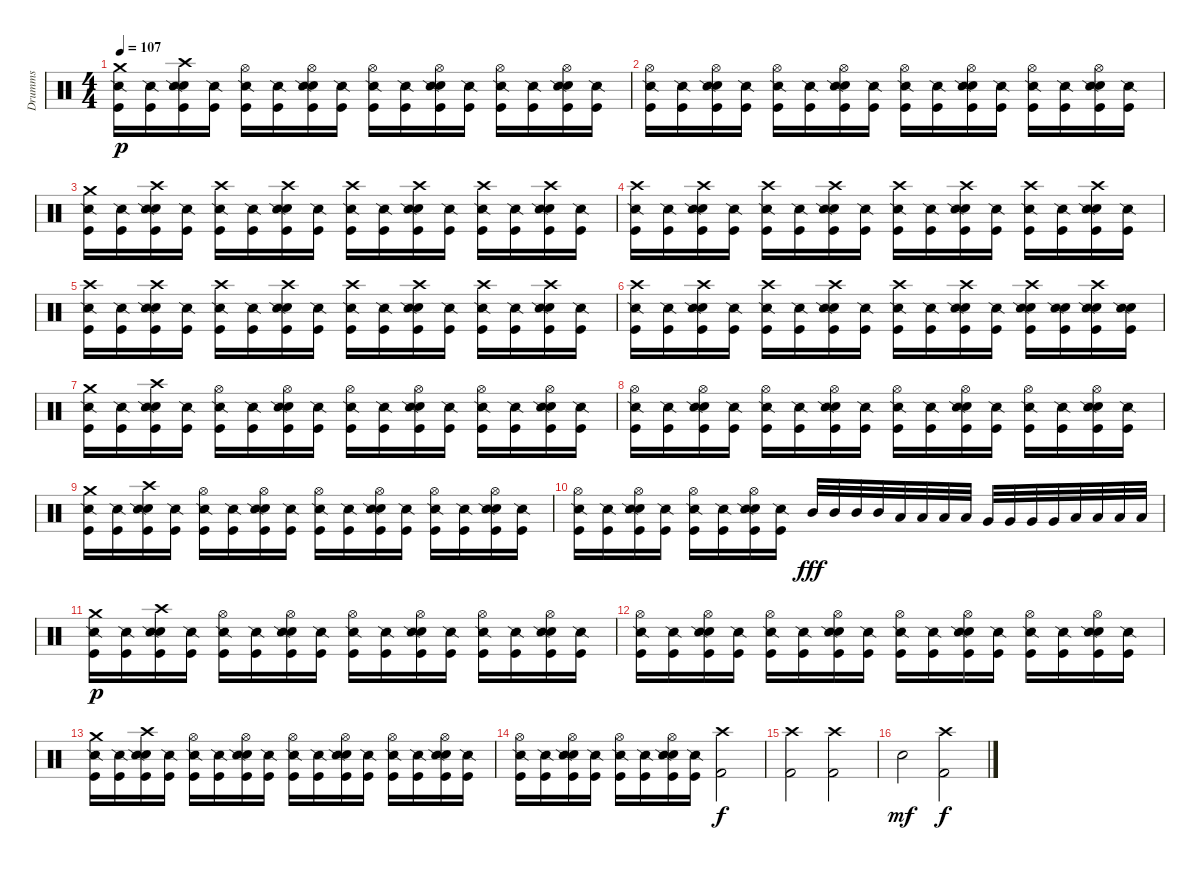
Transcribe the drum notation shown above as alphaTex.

\track ("Drumms" "Drumms") {instrument percussion}
\staff {score}
\articulation defaults
\ts (4 4)
\tempo 107
\clef neutral
\ks c
("Crash medium (hit)" "Snare (side stick) 2" "Kick (hit)").16{dy p} ("Snare (side stick) 2" "Kick (hit)").16 ("Crash high (hit)" "Electric Snare (hit)" "Snare (side stick) 2" "Kick (hit)").16 ("Snare (side stick) 2" "Kick (hit)").16 ("Hi-Hat (open)" "Snare (side stick) 2" "Kick (hit)").16 ("Snare (side stick) 2" "Kick (hit)").16 ("Hi-Hat (open)" "Electric Snare (hit)" "Snare (side stick) 2" "Kick (hit)").16 ("Snare (side stick) 2" "Kick (hit)").16 ("Hi-Hat (open)" "Snare (side stick) 2" "Kick (hit)").16 ("Snare (side stick) 2" "Kick (hit)").16 ("Hi-Hat (open)" "Electric Snare (hit)" "Snare (side stick) 2" "Kick (hit)").16 ("Snare (side stick) 2" "Kick (hit)").16 ("Hi-Hat (open)" "Snare (side stick) 2" "Kick (hit)").16 ("Snare (side stick) 2" "Kick (hit)").16 ("Hi-Hat (open)" "Electric Snare (hit)" "Snare (side stick) 2" "Kick (hit)").16 ("Snare (side stick) 2" "Kick (hit)").16 |
("Hi-Hat (open)" "Snare (side stick) 2" "Kick (hit)").16 ("Snare (side stick) 2" "Kick (hit)").16 ("Hi-Hat (open)" "Electric Snare (hit)" "Snare (side stick) 2" "Kick (hit)").16 ("Snare (side stick) 2" "Kick (hit)").16 ("Hi-Hat (open)" "Snare (side stick) 2" "Kick (hit)").16 ("Snare (side stick) 2" "Kick (hit)").16 ("Hi-Hat (open)" "Electric Snare (hit)" "Snare (side stick) 2" "Kick (hit)").16 ("Snare (side stick) 2" "Kick (hit)").16 ("Hi-Hat (open)" "Snare (side stick) 2" "Kick (hit)").16 ("Snare (side stick) 2" "Kick (hit)").16 ("Hi-Hat (open)" "Electric Snare (hit)" "Snare (side stick) 2" "Kick (hit)").16 ("Snare (side stick) 2" "Kick (hit)").16 ("Hi-Hat (open)" "Snare (side stick) 2" "Kick (hit)").16 ("Snare (side stick) 2" "Kick (hit)").16 ("Hi-Hat (open)" "Electric Snare (hit)" "Snare (side stick) 2" "Kick (hit)").16 ("Snare (side stick) 2" "Kick (hit)").16 |
("Crash medium (hit)" "Snare (side stick) 2" "Kick (hit)").16 ("Snare (side stick) 2" "Kick (hit)").16 ("Crash high (hit)" "Electric Snare (hit)" "Snare (side stick) 2" "Kick (hit)").16 ("Snare (side stick) 2" "Kick (hit)").16 ("Crash high (hit)" "Snare (side stick) 2" "Kick (hit)").16 ("Snare (side stick) 2" "Kick (hit)").16 ("Crash high (hit)" "Electric Snare (hit)" "Snare (side stick) 2" "Kick (hit)").16 ("Snare (side stick) 2" "Kick (hit)").16 ("Crash high (hit)" "Snare (side stick) 2" "Kick (hit)").16 ("Snare (side stick) 2" "Kick (hit)").16 ("Crash high (hit)" "Electric Snare (hit)" "Snare (side stick) 2" "Kick (hit)").16 ("Snare (side stick) 2" "Kick (hit)").16 ("Crash high (hit)" "Snare (side stick) 2" "Kick (hit)").16 ("Snare (side stick) 2" "Kick (hit)").16 ("Crash high (hit)" "Electric Snare (hit)" "Snare (side stick) 2" "Kick (hit)").16 ("Snare (side stick) 2" "Kick (hit)").16 |
("Crash high (hit)" "Snare (side stick) 2" "Kick (hit)").16 ("Snare (side stick) 2" "Kick (hit)").16 ("Crash high (hit)" "Electric Snare (hit)" "Snare (side stick) 2" "Kick (hit)").16 ("Snare (side stick) 2" "Kick (hit)").16 ("Crash high (hit)" "Snare (side stick) 2" "Kick (hit)").16 ("Snare (side stick) 2" "Kick (hit)").16 ("Crash high (hit)" "Electric Snare (hit)" "Snare (side stick) 2" "Kick (hit)").16 ("Snare (side stick) 2" "Kick (hit)").16 ("Crash high (hit)" "Snare (side stick) 2" "Kick (hit)").16 ("Snare (side stick) 2" "Kick (hit)").16 ("Crash high (hit)" "Electric Snare (hit)" "Snare (side stick) 2" "Kick (hit)").16 ("Snare (side stick) 2" "Kick (hit)").16 ("Crash high (hit)" "Snare (side stick) 2" "Kick (hit)").16 ("Snare (side stick) 2" "Kick (hit)").16 ("Crash high (hit)" "Electric Snare (hit)" "Snare (side stick) 2" "Kick (hit)").16 ("Snare (side stick) 2" "Kick (hit)").16 |
("Crash high (hit)" "Snare (side stick) 2" "Kick (hit)").16 ("Snare (side stick) 2" "Kick (hit)").16 ("Crash high (hit)" "Electric Snare (hit)" "Snare (side stick) 2" "Kick (hit)").16 ("Snare (side stick) 2" "Kick (hit)").16 ("Crash high (hit)" "Snare (side stick) 2" "Kick (hit)").16 ("Snare (side stick) 2" "Kick (hit)").16 ("Crash high (hit)" "Electric Snare (hit)" "Snare (side stick) 2" "Kick (hit)").16 ("Snare (side stick) 2" "Kick (hit)").16 ("Crash high (hit)" "Snare (side stick) 2" "Kick (hit)").16 ("Snare (side stick) 2" "Kick (hit)").16 ("Crash high (hit)" "Electric Snare (hit)" "Snare (side stick) 2" "Kick (hit)").16 ("Snare (side stick) 2" "Kick (hit)").16 ("Crash high (hit)" "Snare (side stick) 2" "Kick (hit)").16 ("Snare (side stick) 2" "Kick (hit)").16 ("Crash high (hit)" "Electric Snare (hit)" "Snare (side stick) 2" "Kick (hit)").16 ("Snare (side stick) 2" "Kick (hit)").16 |
("Crash high (hit)" "Snare (side stick) 2" "Kick (hit)").16 ("Snare (side stick) 2" "Kick (hit)").16 ("Crash high (hit)" "Electric Snare (hit)" "Snare (side stick) 2" "Kick (hit)").16 ("Snare (side stick) 2" "Kick (hit)").16 ("Crash high (hit)" "Snare (side stick) 2" "Kick (hit)").16 ("Snare (side stick) 2" "Kick (hit)").16 ("Crash high (hit)" "Electric Snare (hit)" "Snare (side stick) 2" "Kick (hit)").16 ("Snare (side stick) 2" "Kick (hit)").16 ("Crash high (hit)" "Snare (side stick) 2" "Kick (hit)").16 ("Snare (side stick) 2" "Kick (hit)").16 ("Crash high (hit)" "Electric Snare (hit)" "Snare (side stick) 2" "Kick (hit)").16 ("Snare (side stick) 2" "Kick (hit)").16 ("Crash high (hit)" "Electric Snare (hit)" "Snare (side stick) 2" "Kick (hit)").16 ("Electric Snare (hit)" "Snare (side stick) 2" "Kick (hit)").16 ("Crash high (hit)" "Electric Snare (hit)" "Snare (side stick) 2" "Kick (hit)").16 ("Electric Snare (hit)" "Snare (side stick) 2" "Kick (hit)").16 |
("Crash medium (hit)" "Snare (side stick) 2" "Kick (hit)").16 ("Snare (side stick) 2" "Kick (hit)").16 ("Crash high (hit)" "Electric Snare (hit)" "Snare (side stick) 2" "Kick (hit)").16 ("Snare (side stick) 2" "Kick (hit)").16 ("Hi-Hat (open)" "Snare (side stick) 2" "Kick (hit)").16 ("Snare (side stick) 2" "Kick (hit)").16 ("Hi-Hat (open)" "Electric Snare (hit)" "Snare (side stick) 2" "Kick (hit)").16 ("Snare (side stick) 2" "Kick (hit)").16 ("Hi-Hat (open)" "Snare (side stick) 2" "Kick (hit)").16 ("Snare (side stick) 2" "Kick (hit)").16 ("Hi-Hat (open)" "Electric Snare (hit)" "Snare (side stick) 2" "Kick (hit)").16 ("Snare (side stick) 2" "Kick (hit)").16 ("Hi-Hat (open)" "Snare (side stick) 2" "Kick (hit)").16 ("Snare (side stick) 2" "Kick (hit)").16 ("Hi-Hat (open)" "Electric Snare (hit)" "Snare (side stick) 2" "Kick (hit)").16 ("Snare (side stick) 2" "Kick (hit)").16 |
("Hi-Hat (open)" "Snare (side stick) 2" "Kick (hit)").16 ("Snare (side stick) 2" "Kick (hit)").16 ("Hi-Hat (open)" "Electric Snare (hit)" "Snare (side stick) 2" "Kick (hit)").16 ("Snare (side stick) 2" "Kick (hit)").16 ("Hi-Hat (open)" "Snare (side stick) 2" "Kick (hit)").16 ("Snare (side stick) 2" "Kick (hit)").16 ("Hi-Hat (open)" "Electric Snare (hit)" "Snare (side stick) 2" "Kick (hit)").16 ("Snare (side stick) 2" "Kick (hit)").16 ("Hi-Hat (open)" "Snare (side stick) 2" "Kick (hit)").16 ("Snare (side stick) 2" "Kick (hit)").16 ("Hi-Hat (open)" "Electric Snare (hit)" "Snare (side stick) 2" "Kick (hit)").16 ("Snare (side stick) 2" "Kick (hit)").16 ("Hi-Hat (open)" "Snare (side stick) 2" "Kick (hit)").16 ("Snare (side stick) 2" "Kick (hit)").16 ("Hi-Hat (open)" "Electric Snare (hit)" "Snare (side stick) 2" "Kick (hit)").16 ("Snare (side stick) 2" "Kick (hit)").16 |
("Crash medium (hit)" "Snare (side stick) 2" "Kick (hit)").16 ("Snare (side stick) 2" "Kick (hit)").16 ("Crash high (hit)" "Electric Snare (hit)" "Snare (side stick) 2" "Kick (hit)").16 ("Snare (side stick) 2" "Kick (hit)").16 ("Hi-Hat (open)" "Snare (side stick) 2" "Kick (hit)").16 ("Snare (side stick) 2" "Kick (hit)").16 ("Hi-Hat (open)" "Electric Snare (hit)" "Snare (side stick) 2" "Kick (hit)").16 ("Snare (side stick) 2" "Kick (hit)").16 ("Hi-Hat (open)" "Snare (side stick) 2" "Kick (hit)").16 ("Snare (side stick) 2" "Kick (hit)").16 ("Hi-Hat (open)" "Electric Snare (hit)" "Snare (side stick) 2" "Kick (hit)").16 ("Snare (side stick) 2" "Kick (hit)").16 ("Hi-Hat (open)" "Snare (side stick) 2" "Kick (hit)").16 ("Snare (side stick) 2" "Kick (hit)").16 ("Hi-Hat (open)" "Electric Snare (hit)" "Snare (side stick) 2" "Kick (hit)").16 ("Snare (side stick) 2" "Kick (hit)").16 |
("Hi-Hat (open)" "Snare (side stick) 2" "Kick (hit)").16 ("Snare (side stick) 2" "Kick (hit)").16 ("Hi-Hat (open)" "Electric Snare (hit)" "Snare (side stick) 2" "Kick (hit)").16 ("Snare (side stick) 2" "Kick (hit)").16 ("Hi-Hat (open)" "Snare (side stick) 2" "Kick (hit)").16 ("Snare (side stick) 2" "Kick (hit)").16 ("Hi-Hat (open)" "Electric Snare (hit)" "Snare (side stick) 2" "Kick (hit)").16 ("Snare (side stick) 2" "Kick (hit)").16 "Mid Tom (hit)".32{dy fff} "Mid Tom (hit)".32 "Mid Tom (hit)".32 "Mid Tom (hit)".32 "Low Tom (hit)".32 "Low Tom (hit)".32 "Low Tom (hit)".32 "Low Tom (hit)".32 "Very Low Tom (hit)".32 "Very Low Tom (hit)".32 "Very Low Tom (hit)".32 "Very Low Tom (hit)".32 "Low Floor Tom (hit)".32 "Low Floor Tom (hit)".32 "Low Floor Tom (hit)".32 "Low Floor Tom (hit)".32 |
("Crash medium (hit)" "Snare (side stick) 2" "Kick (hit)").16{dy p} ("Snare (side stick) 2" "Kick (hit)").16 ("Crash high (hit)" "Electric Snare (hit)" "Snare (side stick) 2" "Kick (hit)").16 ("Snare (side stick) 2" "Kick (hit)").16 ("Hi-Hat (open)" "Snare (side stick) 2" "Kick (hit)").16 ("Snare (side stick) 2" "Kick (hit)").16 ("Hi-Hat (open)" "Electric Snare (hit)" "Snare (side stick) 2" "Kick (hit)").16 ("Snare (side stick) 2" "Kick (hit)").16 ("Hi-Hat (open)" "Snare (side stick) 2" "Kick (hit)").16 ("Snare (side stick) 2" "Kick (hit)").16 ("Hi-Hat (open)" "Electric Snare (hit)" "Snare (side stick) 2" "Kick (hit)").16 ("Snare (side stick) 2" "Kick (hit)").16 ("Hi-Hat (open)" "Snare (side stick) 2" "Kick (hit)").16 ("Snare (side stick) 2" "Kick (hit)").16 ("Hi-Hat (open)" "Electric Snare (hit)" "Snare (side stick) 2" "Kick (hit)").16 ("Snare (side stick) 2" "Kick (hit)").16 |
("Hi-Hat (open)" "Snare (side stick) 2" "Kick (hit)").16 ("Snare (side stick) 2" "Kick (hit)").16 ("Hi-Hat (open)" "Electric Snare (hit)" "Snare (side stick) 2" "Kick (hit)").16 ("Snare (side stick) 2" "Kick (hit)").16 ("Hi-Hat (open)" "Snare (side stick) 2" "Kick (hit)").16 ("Snare (side stick) 2" "Kick (hit)").16 ("Hi-Hat (open)" "Electric Snare (hit)" "Snare (side stick) 2" "Kick (hit)").16 ("Snare (side stick) 2" "Kick (hit)").16 ("Hi-Hat (open)" "Snare (side stick) 2" "Kick (hit)").16 ("Snare (side stick) 2" "Kick (hit)").16 ("Hi-Hat (open)" "Electric Snare (hit)" "Snare (side stick) 2" "Kick (hit)").16 ("Snare (side stick) 2" "Kick (hit)").16 ("Hi-Hat (open)" "Snare (side stick) 2" "Kick (hit)").16 ("Snare (side stick) 2" "Kick (hit)").16 ("Hi-Hat (open)" "Electric Snare (hit)" "Snare (side stick) 2" "Kick (hit)").16 ("Snare (side stick) 2" "Kick (hit)").16 |
("Crash medium (hit)" "Snare (side stick) 2" "Kick (hit)").16 ("Snare (side stick) 2" "Kick (hit)").16 ("Crash high (hit)" "Electric Snare (hit)" "Snare (side stick) 2" "Kick (hit)").16 ("Snare (side stick) 2" "Kick (hit)").16 ("Hi-Hat (open)" "Snare (side stick) 2" "Kick (hit)").16 ("Snare (side stick) 2" "Kick (hit)").16 ("Hi-Hat (open)" "Electric Snare (hit)" "Snare (side stick) 2" "Kick (hit)").16 ("Snare (side stick) 2" "Kick (hit)").16 ("Hi-Hat (open)" "Snare (side stick) 2" "Kick (hit)").16 ("Snare (side stick) 2" "Kick (hit)").16 ("Hi-Hat (open)" "Electric Snare (hit)" "Snare (side stick) 2" "Kick (hit)").16 ("Snare (side stick) 2" "Kick (hit)").16 ("Hi-Hat (open)" "Snare (side stick) 2" "Kick (hit)").16 ("Snare (side stick) 2" "Kick (hit)").16 ("Hi-Hat (open)" "Electric Snare (hit)" "Snare (side stick) 2" "Kick (hit)").16 ("Snare (side stick) 2" "Kick (hit)").16 |
("Hi-Hat (open)" "Snare (side stick) 2" "Kick (hit)").16 ("Snare (side stick) 2" "Kick (hit)").16 ("Hi-Hat (open)" "Electric Snare (hit)" "Snare (side stick) 2" "Kick (hit)").16 ("Snare (side stick) 2" "Kick (hit)").16 ("Hi-Hat (open)" "Snare (side stick) 2" "Kick (hit)").16 ("Snare (side stick) 2" "Kick (hit)").16 ("Hi-Hat (open)" "Electric Snare (hit)" "Snare (side stick) 2" "Kick (hit)").16 ("Snare (side stick) 2" "Kick (hit)").16 ("Crash high (hit)" "Kick (hit) 2").2{dy f} |
("Crash high (hit)" "Kick (hit) 2").2 ("Crash high (hit)" "Kick (hit) 2").2 |
"Electric Snare (hit)".2{dy mf} ("Crash high (hit)" "Kick (hit) 2").2{dy f}
